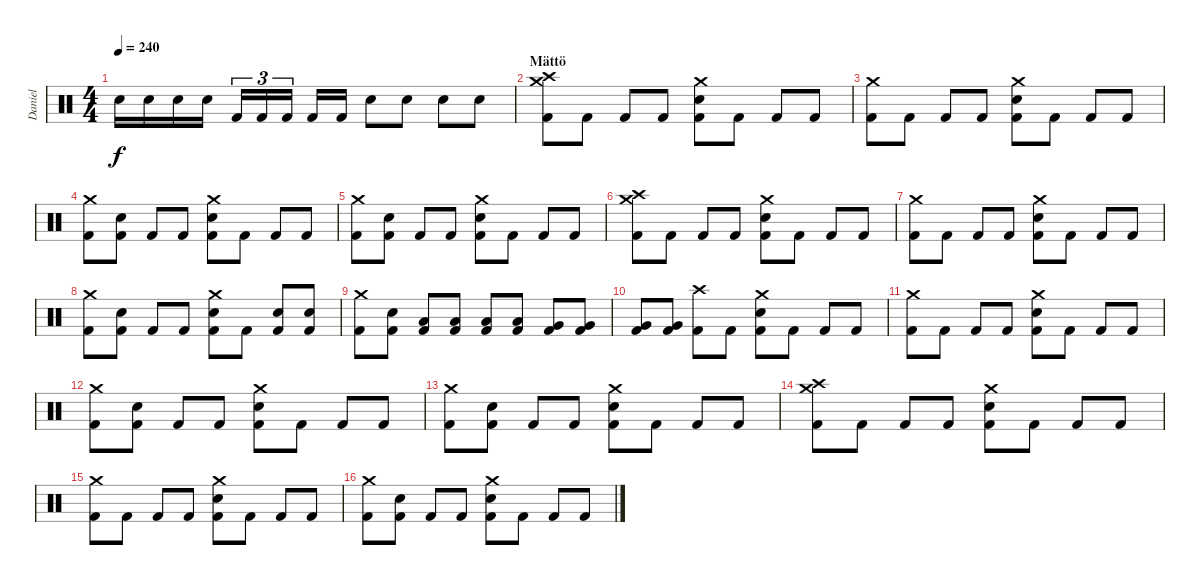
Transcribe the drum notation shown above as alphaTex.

\track ("Daniel" "Daniel") {instrument percussion}
\staff {score}
\articulation defaults
\ts (4 4)
\tempo 240
\clef neutral
\ks c "Electric Snare (hit)".16{dy f} "Electric Snare (hit)".16 "Electric Snare (hit)".16 "Electric Snare (hit)".16 "Kick (hit) 2".16{tu (3 2)} "Kick (hit) 2".16{tu (3 2)} "Kick (hit) 2".16{tu (3 2)} "Kick (hit) 2".16 "Kick (hit) 2".16 "Electric Snare (hit)".8 "Electric Snare (hit)".8 "Electric Snare (hit)".8 "Electric Snare (hit)".8
|
\section ("" "Mättö")
("Crash high (hit)" "Crash medium (hit)" "Kick (hit) 2").8 "Kick (hit) 2".8 "Kick (hit) 2".8 "Kick (hit) 2".8 ("Crash medium (hit)" "Electric Snare (hit)" "Kick (hit) 2").8 "Kick (hit) 2".8 "Kick (hit) 2".8 "Kick (hit) 2".8 |
("Crash medium (hit)" "Kick (hit) 2").8 "Kick (hit) 2".8 "Kick (hit) 2".8 "Kick (hit) 2".8 ("Crash medium (hit)" "Electric Snare (hit)" "Kick (hit) 2").8 "Kick (hit) 2".8 "Kick (hit) 2".8 "Kick (hit) 2".8 |
("Crash medium (hit)" "Kick (hit) 2").8 ("Electric Snare (hit)" "Kick (hit) 2").8 "Kick (hit) 2".8 "Kick (hit) 2".8 ("Crash medium (hit)" "Electric Snare (hit)" "Kick (hit) 2").8 "Kick (hit) 2".8 "Kick (hit) 2".8 "Kick (hit) 2".8 |
("Crash medium (hit)" "Kick (hit) 2").8 ("Electric Snare (hit)" "Kick (hit) 2").8 "Kick (hit) 2".8 "Kick (hit) 2".8 ("Crash medium (hit)" "Electric Snare (hit)" "Kick (hit) 2").8 "Kick (hit) 2".8 "Kick (hit) 2".8 "Kick (hit) 2".8 |
("Crash high (hit)" "Crash medium (hit)" "Kick (hit) 2").8 "Kick (hit) 2".8 "Kick (hit) 2".8 "Kick (hit) 2".8 ("Crash medium (hit)" "Electric Snare (hit)" "Kick (hit) 2").8 "Kick (hit) 2".8 "Kick (hit) 2".8 "Kick (hit) 2".8 |
("Crash medium (hit)" "Kick (hit) 2").8 "Kick (hit) 2".8 "Kick (hit) 2".8 "Kick (hit) 2".8 ("Crash medium (hit)" "Electric Snare (hit)" "Kick (hit) 2").8 "Kick (hit) 2".8 "Kick (hit) 2".8 "Kick (hit) 2".8 |
("Crash medium (hit)" "Kick (hit) 2").8 ("Electric Snare (hit)" "Kick (hit) 2").8 "Kick (hit) 2".8 "Kick (hit) 2".8 ("Crash medium (hit)" "Electric Snare (hit)" "Kick (hit) 2").8 "Kick (hit) 2".8 ("Electric Snare (hit)" "Kick (hit) 2").8 ("Electric Snare (hit)" "Kick (hit) 2").8 |
("Crash medium (hit)" "Kick (hit) 2").8 ("Electric Snare (hit)" "Kick (hit) 2").8 ("Low Tom (hit)" "Kick (hit) 2").8 ("Low Tom (hit)" "Kick (hit) 2").8 ("Low Tom (hit)" "Kick (hit) 2").8 ("Low Tom (hit)" "Kick (hit) 2").8 ("Very Low Tom (hit)" "Kick (hit) 2").8 ("Very Low Tom (hit)" "Kick (hit) 2").8 |
("Very Low Tom (hit)" "Kick (hit) 2").8 ("Very Low Tom (hit)" "Kick (hit) 2").8 ("Crash high (hit)" "Kick (hit) 2").8 "Kick (hit) 2".8 ("Crash medium (hit)" "Electric Snare (hit)" "Kick (hit) 2").8 "Kick (hit) 2".8 "Kick (hit) 2".8 "Kick (hit) 2".8 |
("Crash medium (hit)" "Kick (hit) 2").8 "Kick (hit) 2".8 "Kick (hit) 2".8 "Kick (hit) 2".8 ("Crash medium (hit)" "Electric Snare (hit)" "Kick (hit) 2").8 "Kick (hit) 2".8 "Kick (hit) 2".8 "Kick (hit) 2".8 |
("Crash medium (hit)" "Kick (hit) 2").8 ("Electric Snare (hit)" "Kick (hit) 2").8 "Kick (hit) 2".8 "Kick (hit) 2".8 ("Crash medium (hit)" "Electric Snare (hit)" "Kick (hit) 2").8 "Kick (hit) 2".8 "Kick (hit) 2".8 "Kick (hit) 2".8 |
("Crash medium (hit)" "Kick (hit) 2").8 ("Electric Snare (hit)" "Kick (hit) 2").8 "Kick (hit) 2".8 "Kick (hit) 2".8 ("Crash medium (hit)" "Electric Snare (hit)" "Kick (hit) 2").8 "Kick (hit) 2".8 "Kick (hit) 2".8 "Kick (hit) 2".8 |
("Crash high (hit)" "Crash medium (hit)" "Kick (hit) 2").8 "Kick (hit) 2".8 "Kick (hit) 2".8 "Kick (hit) 2".8 ("Crash medium (hit)" "Electric Snare (hit)" "Kick (hit) 2").8 "Kick (hit) 2".8 "Kick (hit) 2".8 "Kick (hit) 2".8 |
("Crash medium (hit)" "Kick (hit) 2").8 "Kick (hit) 2".8 "Kick (hit) 2".8 "Kick (hit) 2".8 ("Crash medium (hit)" "Electric Snare (hit)" "Kick (hit) 2").8 "Kick (hit) 2".8 "Kick (hit) 2".8 "Kick (hit) 2".8 |
("Crash medium (hit)" "Kick (hit) 2").8 ("Electric Snare (hit)" "Kick (hit) 2").8 "Kick (hit) 2".8 "Kick (hit) 2".8 ("Crash medium (hit)" "Electric Snare (hit)" "Kick (hit) 2").8 "Kick (hit) 2".8 "Kick (hit) 2".8 "Kick (hit) 2".8
